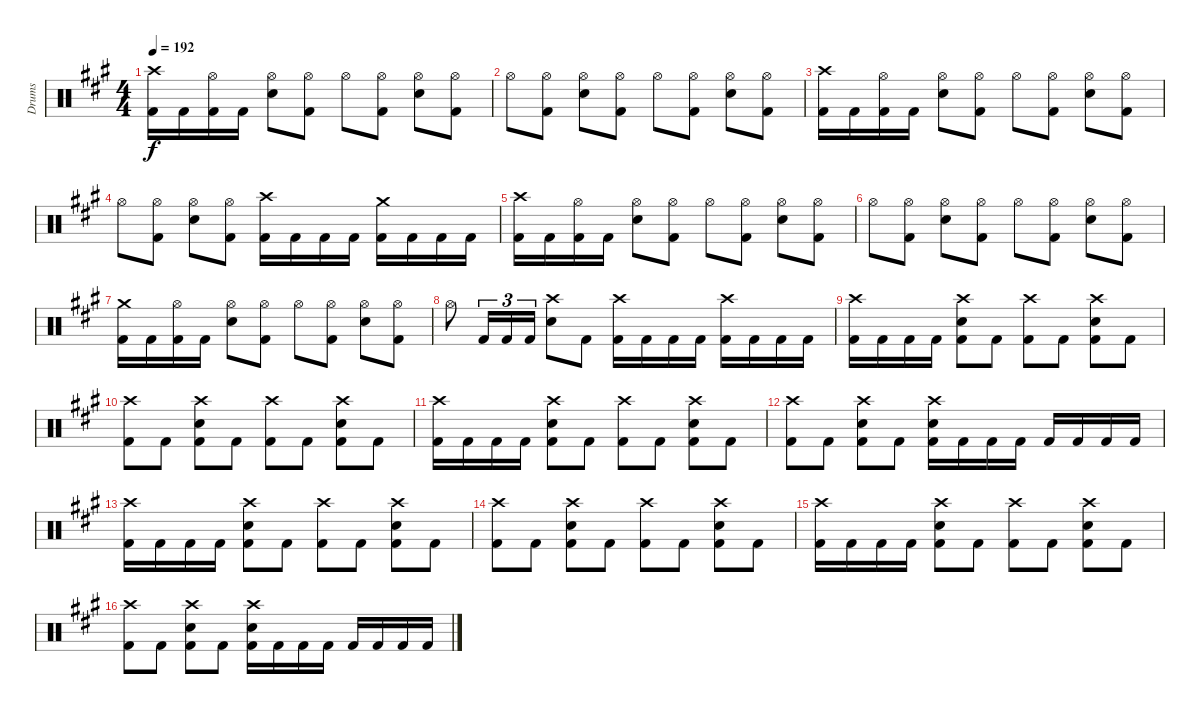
\track ("Drums" "Drums") {instrument percussion}
\staff {score}
\articulation defaults
\ts (4 4)
\tempo 192
\clef neutral
\ks f#minor
("Crash high (hit)" "Kick (hit) 2").16{dy f} "Kick (hit) 2".16 ("Hi-Hat (open)" "Kick (hit) 2").16 "Kick (hit) 2".16 ("Hi-Hat (open)" "Snare (hit) 2").8 ("Hi-Hat (open)" "Kick (hit) 2").8 "Hi-Hat (open)".8 ("Hi-Hat (open)" "Kick (hit) 2").8 ("Hi-Hat (open)" "Snare (hit) 2").8 ("Hi-Hat (open)" "Kick (hit) 2").8 |
"Hi-Hat (open)".8 ("Hi-Hat (open)" "Kick (hit) 2").8 ("Hi-Hat (open)" "Snare (hit) 2").8 ("Hi-Hat (open)" "Kick (hit) 2").8 "Hi-Hat (open)".8 ("Hi-Hat (open)" "Kick (hit) 2").8 ("Hi-Hat (open)" "Snare (hit) 2").8 ("Hi-Hat (open)" "Kick (hit) 2").8 |
("Crash high (hit)" "Kick (hit) 2").16 "Kick (hit) 2".16 ("Hi-Hat (open)" "Kick (hit) 2").16 "Kick (hit) 2".16 ("Hi-Hat (open)" "Snare (hit) 2").8 ("Hi-Hat (open)" "Kick (hit) 2").8 "Hi-Hat (open)".8 ("Hi-Hat (open)" "Kick (hit) 2").8 ("Hi-Hat (open)" "Snare (hit) 2").8 ("Hi-Hat (open)" "Kick (hit) 2").8 |
"Hi-Hat (open)".8 ("Hi-Hat (open)" "Kick (hit) 2").8 ("Hi-Hat (open)" "Snare (hit) 2").8 ("Hi-Hat (open)" "Kick (hit) 2").8 ("Crash high (hit)" "Kick (hit) 2").16 "Kick (hit) 2".16 "Kick (hit) 2".16 "Kick (hit) 2".16 ("Crash medium (hit)" "Kick (hit) 2").16 "Kick (hit) 2".16 "Kick (hit) 2".16 "Kick (hit) 2".16 |
("Crash high (hit)" "Kick (hit) 2").16 "Kick (hit) 2".16 ("Hi-Hat (open)" "Kick (hit) 2").16 "Kick (hit) 2".16 ("Hi-Hat (open)" "Snare (hit) 2").8 ("Hi-Hat (open)" "Kick (hit) 2").8 "Hi-Hat (open)".8 ("Hi-Hat (open)" "Kick (hit) 2").8 ("Hi-Hat (open)" "Snare (hit) 2").8 ("Hi-Hat (open)" "Kick (hit) 2").8 |
"Hi-Hat (open)".8 ("Hi-Hat (open)" "Kick (hit) 2").8 ("Hi-Hat (open)" "Snare (hit) 2").8 ("Hi-Hat (open)" "Kick (hit) 2").8 "Hi-Hat (open)".8 ("Hi-Hat (open)" "Kick (hit) 2").8 ("Hi-Hat (open)" "Snare (hit) 2").8 ("Hi-Hat (open)" "Kick (hit) 2").8 |
("Crash medium (hit)" "Kick (hit) 2").16 "Kick (hit) 2".16 ("Hi-Hat (open)" "Kick (hit) 2").16 "Kick (hit) 2".16 ("Hi-Hat (open)" "Snare (hit) 2").8 ("Hi-Hat (open)" "Kick (hit) 2").8 "Hi-Hat (open)".8 ("Hi-Hat (open)" "Kick (hit) 2").8 ("Hi-Hat (open)" "Snare (hit) 2").8 ("Hi-Hat (open)" "Kick (hit) 2").8 |
"Hi-Hat (open)".8 "Kick (hit) 2".16{tu (3 2)} "Kick (hit) 2".16{tu (3 2)} "Kick (hit) 2".16{tu (3 2)} ("Crash high (hit)" "Snare (hit) 2").8 "Kick (hit) 2".8 ("Crash high (hit)" "Kick (hit) 2").16 "Kick (hit) 2".16 "Kick (hit) 2".16 "Kick (hit) 2".16 ("Crash high (hit)" "Kick (hit) 2").16 "Kick (hit) 2".16 "Kick (hit) 2".16 "Kick (hit) 2".16 |
("Crash high (hit)" "Kick (hit) 2").16 "Kick (hit) 2".16 "Kick (hit) 2".16 "Kick (hit) 2".16 ("Crash high (hit)" "Snare (hit) 2" "Kick (hit) 2").8 "Kick (hit) 2".8 ("Crash high (hit)" "Kick (hit) 2").8 "Kick (hit) 2".8 ("Crash high (hit)" "Snare (hit) 2" "Kick (hit) 2").8 "Kick (hit) 2".8 |
("Crash high (hit)" "Kick (hit) 2").8 "Kick (hit) 2".8 ("Crash high (hit)" "Snare (hit) 2" "Kick (hit) 2").8 "Kick (hit) 2".8 ("Crash high (hit)" "Kick (hit) 2").8 "Kick (hit) 2".8 ("Crash high (hit)" "Snare (hit) 2" "Kick (hit) 2").8 "Kick (hit) 2".8 |
("Crash high (hit)" "Kick (hit) 2").16 "Kick (hit) 2".16 "Kick (hit) 2".16 "Kick (hit) 2".16 ("Crash high (hit)" "Snare (hit) 2" "Kick (hit) 2").8 "Kick (hit) 2".8 ("Crash high (hit)" "Kick (hit) 2").8 "Kick (hit) 2".8 ("Crash high (hit)" "Snare (hit) 2" "Kick (hit) 2").8 "Kick (hit) 2".8 |
("Crash high (hit)" "Kick (hit) 2").8 "Kick (hit) 2".8 ("Crash high (hit)" "Snare (hit) 2" "Kick (hit) 2").8 "Kick (hit) 2".8 ("Crash high (hit)" "Snare (hit) 2" "Kick (hit) 2").16 "Kick (hit) 2".16 "Kick (hit) 2".16 "Kick (hit) 2".16 "Kick (hit) 2".16 "Kick (hit) 2".16 "Kick (hit) 2".16 "Kick (hit) 2".16 |
("Crash high (hit)" "Kick (hit) 2").16 "Kick (hit) 2".16 "Kick (hit) 2".16 "Kick (hit) 2".16 ("Crash high (hit)" "Snare (hit) 2" "Kick (hit) 2").8 "Kick (hit) 2".8 ("Crash high (hit)" "Kick (hit) 2").8 "Kick (hit) 2".8 ("Crash high (hit)" "Snare (hit) 2" "Kick (hit) 2").8 "Kick (hit) 2".8 |
("Crash high (hit)" "Kick (hit) 2").8 "Kick (hit) 2".8 ("Crash high (hit)" "Snare (hit) 2" "Kick (hit) 2").8 "Kick (hit) 2".8 ("Crash high (hit)" "Kick (hit) 2").8 "Kick (hit) 2".8 ("Crash high (hit)" "Snare (hit) 2" "Kick (hit) 2").8 "Kick (hit) 2".8 |
("Crash high (hit)" "Kick (hit) 2").16 "Kick (hit) 2".16 "Kick (hit) 2".16 "Kick (hit) 2".16 ("Crash high (hit)" "Snare (hit) 2" "Kick (hit) 2").8 "Kick (hit) 2".8 ("Crash high (hit)" "Kick (hit) 2").8 "Kick (hit) 2".8 ("Crash high (hit)" "Snare (hit) 2" "Kick (hit) 2").8 "Kick (hit) 2".8 |
("Crash high (hit)" "Kick (hit) 2").8 "Kick (hit) 2".8 ("Crash high (hit)" "Snare (hit) 2" "Kick (hit) 2").8 "Kick (hit) 2".8 ("Crash high (hit)" "Snare (hit) 2" "Kick (hit) 2").16 "Kick (hit) 2".16 "Kick (hit) 2".16 "Kick (hit) 2".16 "Kick (hit) 2".16 "Kick (hit) 2".16 "Kick (hit) 2".16 "Kick (hit) 2".16
